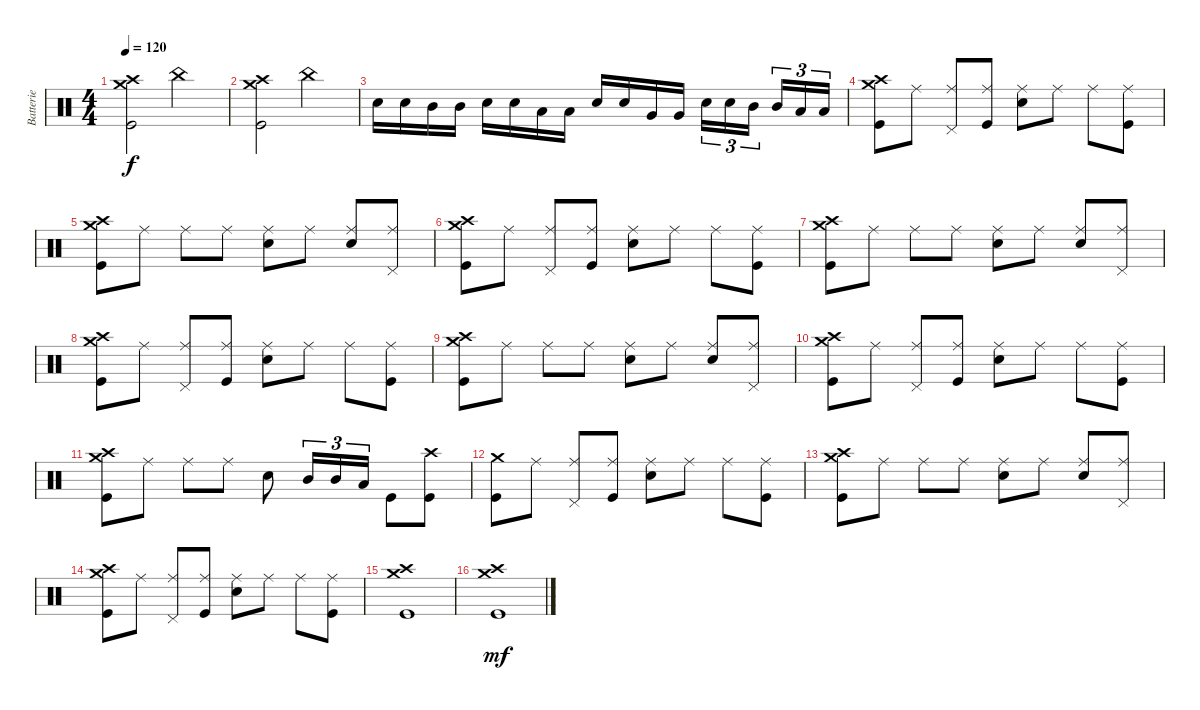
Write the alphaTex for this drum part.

\track ("Batterie" "Batterie") {instrument percussion}
\staff {score}
\articulation defaults
\ts (4 4)
\tempo 120
\clef neutral
\ks c
("Crash high (hit)" "Crash medium (hit)" "Kick (hit)").2{dy f} "China (hit)".2 |
("Crash high (hit)" "Crash medium (hit)" "Kick (hit)").2 "China (hit)".2 |
"Electric Snare (hit)".16 "Electric Snare (hit)".16 "Mid Tom (hit)".16 "Mid Tom (hit)".16 "Electric Snare (hit)".16 "Electric Snare (hit)".16 "Low Tom (hit)".16 "Low Tom (hit)".16 "Electric Snare (hit)".16 "Electric Snare (hit)".16 "Very Low Tom (hit)".16 "Very Low Tom (hit)".16 "Electric Snare (hit)".16{tu (3 2)} "Electric Snare (hit)".16{tu (3 2)} "Mid Tom (hit)".16{tu (3 2)} "Mid Tom (hit)".16{tu (3 2)} "Low Tom (hit)".16{tu (3 2)} "Low Tom (hit)".16{tu (3 2)} |
("Crash high (hit)" "Crash medium (hit)" "Kick (hit)").8 "Ride (middle)".8 ("Ride (middle)" "Pedal Hi-Hat (hit)").8 ("Ride (middle)" "Kick (hit)").8 ("Ride (middle)" "Electric Snare (hit)").8 "Ride (middle)".8 "Ride (middle)".8 ("Ride (middle)" "Kick (hit)").8 |
("Crash high (hit)" "Crash medium (hit)" "Kick (hit)").8 "Ride (middle)".8 "Ride (middle)".8 "Ride (middle)".8 ("Ride (middle)" "Electric Snare (hit)").8 "Ride (middle)".8 ("Ride (middle)" "Electric Snare (hit)").8 ("Ride (middle)" "Pedal Hi-Hat (hit)").8 |
("Crash high (hit)" "Crash medium (hit)" "Kick (hit)").8 "Ride (middle)".8 ("Ride (middle)" "Pedal Hi-Hat (hit)").8 ("Ride (middle)" "Kick (hit)").8 ("Ride (middle)" "Electric Snare (hit)").8 "Ride (middle)".8 "Ride (middle)".8 ("Ride (middle)" "Kick (hit)").8 |
("Crash high (hit)" "Crash medium (hit)" "Kick (hit)").8 "Ride (middle)".8 "Ride (middle)".8 "Ride (middle)".8 ("Ride (middle)" "Electric Snare (hit)").8 "Ride (middle)".8 ("Ride (middle)" "Electric Snare (hit)").8 ("Ride (middle)" "Pedal Hi-Hat (hit)").8 |
("Crash high (hit)" "Crash medium (hit)" "Kick (hit)").8 "Ride (middle)".8 ("Ride (middle)" "Pedal Hi-Hat (hit)").8 ("Ride (middle)" "Kick (hit)").8 ("Ride (middle)" "Electric Snare (hit)").8 "Ride (middle)".8 "Ride (middle)".8 ("Ride (middle)" "Kick (hit)").8 |
("Crash high (hit)" "Crash medium (hit)" "Kick (hit)").8 "Ride (middle)".8 "Ride (middle)".8 "Ride (middle)".8 ("Ride (middle)" "Electric Snare (hit)").8 "Ride (middle)".8 ("Ride (middle)" "Electric Snare (hit)").8 ("Ride (middle)" "Pedal Hi-Hat (hit)").8 |
("Crash high (hit)" "Crash medium (hit)" "Kick (hit)").8 "Ride (middle)".8 ("Ride (middle)" "Pedal Hi-Hat (hit)").8 ("Ride (middle)" "Kick (hit)").8 ("Ride (middle)" "Electric Snare (hit)").8 "Ride (middle)".8 "Ride (middle)".8 ("Ride (middle)" "Kick (hit)").8 |
("Crash high (hit)" "Crash medium (hit)" "Kick (hit)").8 "Ride (middle)".8 "Ride (middle)".8 "Ride (middle)".8 "Electric Snare (hit)".8 "Mid Tom (hit)".16{tu (3 2)} "Mid Tom (hit)".16{tu (3 2)} "Low Tom (hit)".16{tu (3 2)} "Kick (hit)".8 ("Crash high (hit)" "Kick (hit)").8 |
("Crash medium (hit)" "Kick (hit)").8 "Ride (middle)".8 ("Ride (middle)" "Pedal Hi-Hat (hit)").8 ("Ride (middle)" "Kick (hit)").8 ("Ride (middle)" "Electric Snare (hit)").8 "Ride (middle)".8 "Ride (middle)".8 ("Ride (middle)" "Kick (hit)").8 |
("Crash high (hit)" "Crash medium (hit)" "Kick (hit)").8 "Ride (middle)".8 "Ride (middle)".8 "Ride (middle)".8 ("Ride (middle)" "Electric Snare (hit)").8 "Ride (middle)".8 ("Ride (middle)" "Electric Snare (hit)").8 ("Ride (middle)" "Pedal Hi-Hat (hit)").8 |
("Crash high (hit)" "Crash medium (hit)" "Kick (hit)").8 "Ride (middle)".8 ("Ride (middle)" "Pedal Hi-Hat (hit)").8 ("Ride (middle)" "Kick (hit)").8 ("Ride (middle)" "Electric Snare (hit)").8 "Ride (middle)".8 "Ride (middle)".8 ("Ride (middle)" "Kick (hit)").8 |
("Crash high (hit)" "Crash medium (hit)" "Kick (hit)").1 |
("Crash high (hit)" "Crash medium (hit)" "Kick (hit)").1{dy mf}
